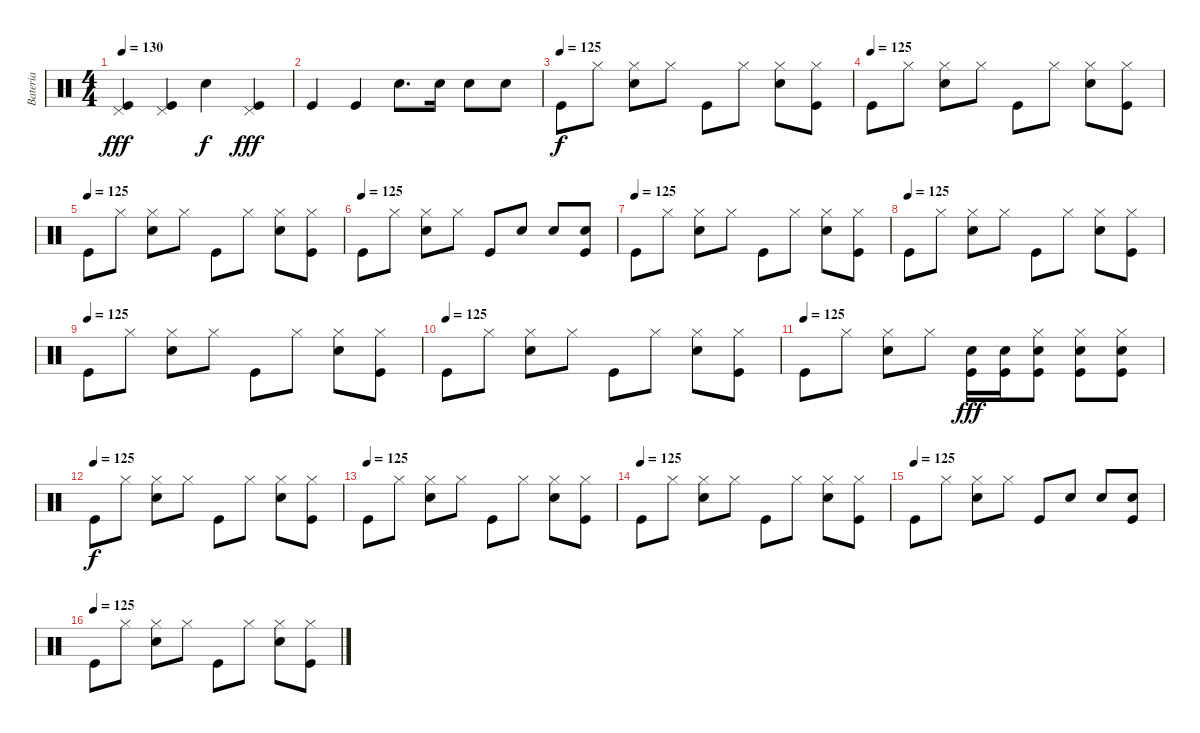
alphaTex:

\track ("Bateria" "Bateria") {instrument percussion}
\staff {score}
\articulation defaults
\ts (4 4)
\tempo 130
\clef neutral
\ks c
("Pedal Hi-Hat (hit)" "Kick (hit)").4{dy fff} ("Pedal Hi-Hat (hit)" "Kick (hit)").4 "Snare (hit) 2".4{dy f} ("Pedal Hi-Hat (hit)" "Kick (hit)").4{dy fff} |
"Kick (hit)".4 "Kick (hit)".4 "Snare (hit) 2".8{d} "Snare (hit) 2".16 "Snare (hit) 2".8 "Snare (hit) 2".8 |
\tempo (125)
"Kick (hit)".8{dy f} "Hi-Hat (closed)".8 ("Snare (hit) 2" "Hi-Hat (closed)").8 "Hi-Hat (closed)".8 "Kick (hit)".8 "Hi-Hat (closed)".8 ("Snare (hit) 2" "Hi-Hat (closed)").8 ("Hi-Hat (closed)" "Kick (hit)").8 |
\tempo (125)
"Kick (hit)".8 "Hi-Hat (closed)".8 ("Snare (hit) 2" "Hi-Hat (closed)").8 "Hi-Hat (closed)".8 "Kick (hit)".8 "Hi-Hat (closed)".8 ("Snare (hit) 2" "Hi-Hat (closed)").8 ("Hi-Hat (closed)" "Kick (hit)").8 |
\tempo (125)
"Kick (hit)".8 "Hi-Hat (closed)".8 ("Snare (hit) 2" "Hi-Hat (closed)").8 "Hi-Hat (closed)".8 "Kick (hit)".8 "Hi-Hat (closed)".8 ("Snare (hit) 2" "Hi-Hat (closed)").8 ("Hi-Hat (closed)" "Kick (hit)").8 |
\tempo (125)
"Kick (hit)".8 "Hi-Hat (closed)".8 ("Snare (hit) 2" "Hi-Hat (closed)").8 "Hi-Hat (closed)".8 "Kick (hit)".8 "Snare (hit) 2".8 "Snare (hit) 2".8 ("Snare (hit) 2" "Kick (hit)").8 |
\tempo (125)
"Kick (hit)".8 "Hi-Hat (closed)".8 ("Snare (hit) 2" "Hi-Hat (closed)").8 "Hi-Hat (closed)".8 "Kick (hit)".8 "Hi-Hat (closed)".8 ("Snare (hit) 2" "Hi-Hat (closed)").8 ("Hi-Hat (closed)" "Kick (hit)").8 |
\tempo (125)
"Kick (hit)".8 "Hi-Hat (closed)".8 ("Snare (hit) 2" "Hi-Hat (closed)").8 "Hi-Hat (closed)".8 "Kick (hit)".8 "Hi-Hat (closed)".8 ("Snare (hit) 2" "Hi-Hat (closed)").8 ("Hi-Hat (closed)" "Kick (hit)").8 |
\tempo (125)
"Kick (hit)".8 "Hi-Hat (closed)".8 ("Snare (hit) 2" "Hi-Hat (closed)").8 "Hi-Hat (closed)".8 "Kick (hit)".8 "Hi-Hat (closed)".8 ("Snare (hit) 2" "Hi-Hat (closed)").8 ("Hi-Hat (closed)" "Kick (hit)").8 |
\tempo (125)
"Kick (hit)".8 "Hi-Hat (closed)".8 ("Snare (hit) 2" "Hi-Hat (closed)").8 "Hi-Hat (closed)".8 "Kick (hit)".8 "Hi-Hat (closed)".8 ("Snare (hit) 2" "Hi-Hat (closed)").8 ("Hi-Hat (closed)" "Kick (hit)").8 |
\tempo (125)
"Kick (hit)".8 "Hi-Hat (closed)".8 ("Snare (hit) 2" "Hi-Hat (closed)").8 "Hi-Hat (closed)".8 ("Snare (hit) 2" "Kick (hit)").16{dy fff} ("Snare (hit) 2" "Kick (hit)").16 ("Snare (hit) 2" "Hi-Hat (closed)" "Kick (hit)").8 ("Snare (hit) 2" "Hi-Hat (closed)" "Kick (hit)").8 ("Snare (hit) 2" "Hi-Hat (closed)" "Kick (hit)").8 |
\tempo (125)
"Kick (hit)".8{dy f} "Hi-Hat (closed)".8 ("Snare (hit) 2" "Hi-Hat (closed)").8 "Hi-Hat (closed)".8 "Kick (hit)".8 "Hi-Hat (closed)".8 ("Snare (hit) 2" "Hi-Hat (closed)").8 ("Hi-Hat (closed)" "Kick (hit)").8 |
\tempo (125)
"Kick (hit)".8 "Hi-Hat (closed)".8 ("Snare (hit) 2" "Hi-Hat (closed)").8 "Hi-Hat (closed)".8 "Kick (hit)".8 "Hi-Hat (closed)".8 ("Snare (hit) 2" "Hi-Hat (closed)").8 ("Hi-Hat (closed)" "Kick (hit)").8 |
\tempo (125)
"Kick (hit)".8 "Hi-Hat (closed)".8 ("Snare (hit) 2" "Hi-Hat (closed)").8 "Hi-Hat (closed)".8 "Kick (hit)".8 "Hi-Hat (closed)".8 ("Snare (hit) 2" "Hi-Hat (closed)").8 ("Hi-Hat (closed)" "Kick (hit)").8 |
\tempo (125)
"Kick (hit)".8 "Hi-Hat (closed)".8 ("Snare (hit) 2" "Hi-Hat (closed)").8 "Hi-Hat (closed)".8 "Kick (hit)".8 "Snare (hit) 2".8 "Snare (hit) 2".8 ("Snare (hit) 2" "Kick (hit)").8 |
\tempo (125)
"Kick (hit)".8 "Hi-Hat (closed)".8 ("Snare (hit) 2" "Hi-Hat (closed)").8 "Hi-Hat (closed)".8 "Kick (hit)".8 "Hi-Hat (closed)".8 ("Snare (hit) 2" "Hi-Hat (closed)").8 ("Hi-Hat (closed)" "Kick (hit)").8
